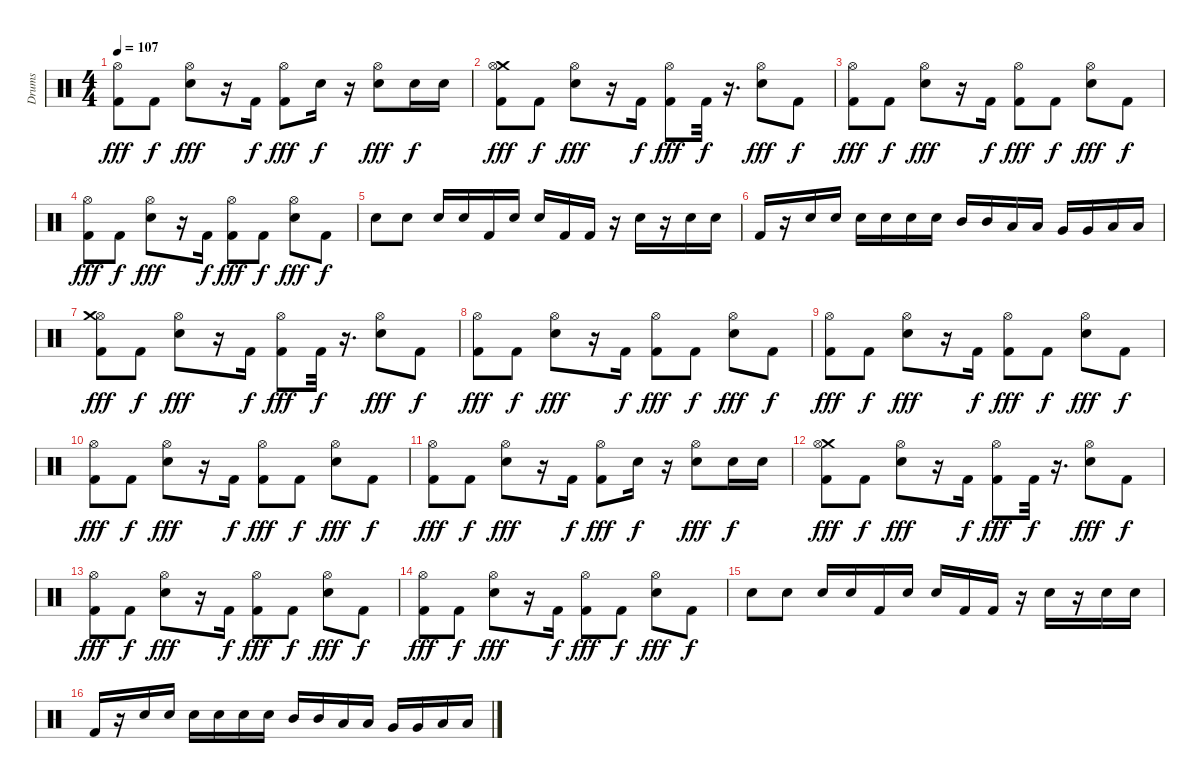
\track ("Drums" "Drums") {instrument percussion}
\staff {score}
\articulation defaults
\ts (4 4)
\tempo 107
\clef neutral
\ks c
("Kick (hit) 2" "Hi-Hat (open)").8{dy fff} "Kick (hit) 2".8{dy f} ("Hi-Hat (open)" "Snare (hit) 2").8{dy fff} r.16 "Kick (hit) 2".16{dy f} ("Kick (hit) 2" "Hi-Hat (open)").8{dy fff} "Snare (hit) 2".16{dy f} r.16 ("Snare (hit) 2" "Hi-Hat (open)").8{dy fff} "Snare (hit) 2".16{dy f} "Snare (hit) 2".16 |
("Kick (hit) 2" "Crash medium (hit)" "Hi-Hat (open)").8{dy fff} "Kick (hit) 2".8{dy f} ("Snare (hit) 2" "Hi-Hat (open)").8{dy fff} r.16 "Kick (hit) 2".16{dy f} ("Kick (hit) 2" "Hi-Hat (open)").8{dy fff} "Kick (hit) 2".32{dy f} r.16{d} ("Snare (hit) 2" "Hi-Hat (open)").8{dy fff} "Kick (hit) 2".8{dy f} |
("Kick (hit) 2" "Hi-Hat (open)").8{dy fff} "Kick (hit) 2".8{dy f} ("Snare (hit) 2" "Hi-Hat (open)").8{dy fff} r.16 "Kick (hit) 2".16{dy f} ("Kick (hit) 2" "Hi-Hat (open)").8{dy fff} "Kick (hit) 2".8{dy f} ("Hi-Hat (open)" "Snare (hit) 2").8{dy fff} "Kick (hit) 2".8{dy f} |
("Hi-Hat (open)" "Kick (hit) 2").8{dy fff} "Kick (hit) 2".8{dy f} ("Snare (hit) 2" "Hi-Hat (open)").8{dy fff} r.16 "Kick (hit) 2".16{dy f} ("Hi-Hat (open)" "Kick (hit) 2").8{dy fff} "Kick (hit) 2".8{dy f} ("Hi-Hat (open)" "Snare (hit) 2").8{dy fff} "Kick (hit) 2".8{dy f} |
"Snare (hit) 2".8 "Snare (hit) 2".8 "Snare (hit) 2".16 "Snare (hit) 2".16 "Kick (hit) 2".16 "Snare (hit) 2".16 "Snare (hit) 2".16 "Kick (hit) 2".16 "Kick (hit) 2".16 r.16 "Snare (hit) 2".16 r.16 "Snare (hit) 2".16 "Snare (hit) 2".16 |
"Kick (hit) 2".16 r.16 "Snare (hit) 2".16 "Snare (hit) 2".16 "Snare (hit) 2".16 "Snare (hit) 2".16 "Snare (hit) 2".16 "Snare (hit) 2".16 "Mid Tom (hit)".16 "Mid Tom (hit)".16 "Low Tom (hit)".16 "Low Tom (hit)".16 "Very Low Tom (hit)".16 "Very Low Tom (hit)".16 "Low Floor Tom (hit)".16 "Low Floor Tom (hit)".16 |
("Hi-Hat (open)" "Kick (hit) 2" "Crash medium (hit)").8{dy fff} "Kick (hit) 2".8{dy f} ("Snare (hit) 2" "Hi-Hat (open)").8{dy fff} r.16 "Kick (hit) 2".16{dy f} ("Kick (hit) 2" "Hi-Hat (open)").8{dy fff} "Kick (hit) 2".32{dy f} r.16{d} ("Snare (hit) 2" "Hi-Hat (open)").8{dy fff} "Kick (hit) 2".8{dy f} |
("Kick (hit) 2" "Hi-Hat (open)").8{dy fff} "Kick (hit) 2".8{dy f} ("Snare (hit) 2" "Hi-Hat (open)").8{dy fff} r.16 "Kick (hit) 2".16{dy f} ("Kick (hit) 2" "Hi-Hat (open)").8{dy fff} "Kick (hit) 2".8{dy f} ("Snare (hit) 2" "Hi-Hat (open)").8{dy fff} "Kick (hit) 2".8{dy f} |
("Kick (hit) 2" "Hi-Hat (open)").8{dy fff} "Kick (hit) 2".8{dy f} ("Hi-Hat (open)" "Snare (hit) 2").8{dy fff} r.16 "Kick (hit) 2".16{dy f} ("Kick (hit) 2" "Hi-Hat (open)").8{dy fff} "Kick (hit) 2".8{dy f} ("Snare (hit) 2" "Hi-Hat (open)").8{dy fff} "Kick (hit) 2".8{dy f} |
("Kick (hit) 2" "Hi-Hat (open)").8{dy fff} "Kick (hit) 2".8{dy f} ("Hi-Hat (open)" "Snare (hit) 2").8{dy fff} r.16 "Kick (hit) 2".16{dy f} ("Kick (hit) 2" "Hi-Hat (open)").8{dy fff} "Kick (hit) 2".8{dy f} ("Snare (hit) 2" "Hi-Hat (open)").8{dy fff} "Kick (hit) 2".8{dy f} |
("Kick (hit) 2" "Hi-Hat (open)").8{dy fff} "Kick (hit) 2".8{dy f} ("Hi-Hat (open)" "Snare (hit) 2").8{dy fff} r.16 "Kick (hit) 2".16{dy f} ("Kick (hit) 2" "Hi-Hat (open)").8{dy fff} "Snare (hit) 2".16{dy f} r.16 ("Snare (hit) 2" "Hi-Hat (open)").8{dy fff} "Snare (hit) 2".16{dy f} "Snare (hit) 2".16 |
("Kick (hit) 2" "Crash medium (hit)" "Hi-Hat (open)").8{dy fff} "Kick (hit) 2".8{dy f} ("Snare (hit) 2" "Hi-Hat (open)").8{dy fff} r.16 "Kick (hit) 2".16{dy f} ("Kick (hit) 2" "Hi-Hat (open)").8{dy fff} "Kick (hit) 2".32{dy f} r.16{d} ("Snare (hit) 2" "Hi-Hat (open)").8{dy fff} "Kick (hit) 2".8{dy f} |
("Kick (hit) 2" "Hi-Hat (open)").8{dy fff} "Kick (hit) 2".8{dy f} ("Snare (hit) 2" "Hi-Hat (open)").8{dy fff} r.16 "Kick (hit) 2".16{dy f} ("Kick (hit) 2" "Hi-Hat (open)").8{dy fff} "Kick (hit) 2".8{dy f} ("Hi-Hat (open)" "Snare (hit) 2").8{dy fff} "Kick (hit) 2".8{dy f} |
("Hi-Hat (open)" "Kick (hit) 2").8{dy fff} "Kick (hit) 2".8{dy f} ("Snare (hit) 2" "Hi-Hat (open)").8{dy fff} r.16 "Kick (hit) 2".16{dy f} ("Hi-Hat (open)" "Kick (hit) 2").8{dy fff} "Kick (hit) 2".8{dy f} ("Hi-Hat (open)" "Snare (hit) 2").8{dy fff} "Kick (hit) 2".8{dy f} |
"Snare (hit) 2".8 "Snare (hit) 2".8 "Snare (hit) 2".16 "Snare (hit) 2".16 "Kick (hit) 2".16 "Snare (hit) 2".16 "Snare (hit) 2".16 "Kick (hit) 2".16 "Kick (hit) 2".16 r.16 "Snare (hit) 2".16 r.16 "Snare (hit) 2".16 "Snare (hit) 2".16 |
"Kick (hit) 2".16 r.16 "Snare (hit) 2".16 "Snare (hit) 2".16 "Snare (hit) 2".16 "Snare (hit) 2".16 "Snare (hit) 2".16 "Snare (hit) 2".16 "Mid Tom (hit)".16 "Mid Tom (hit)".16 "Low Tom (hit)".16 "Low Tom (hit)".16 "Very Low Tom (hit)".16 "Very Low Tom (hit)".16 "Low Floor Tom (hit)".16 "Low Floor Tom (hit)".16
